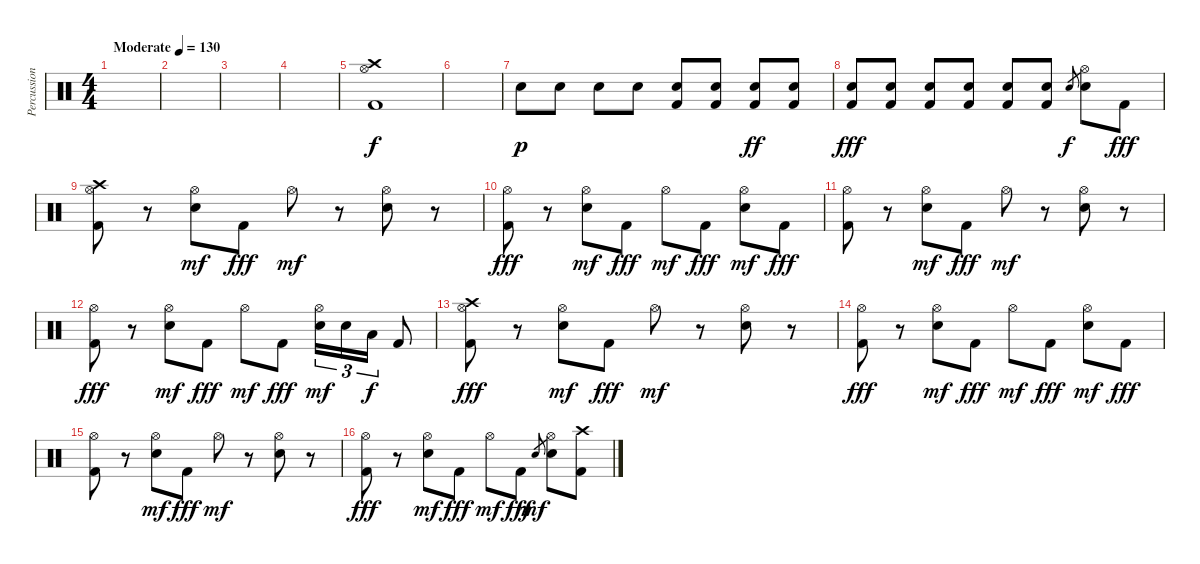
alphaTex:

\track ("Percussion" "Percussion") {instrument percussion}
\staff {score}
\articulation defaults
\ts (4 4)
\tempo (130 "Moderate")
\clef neutral
\ks c
|
|
|
|
("Kick (hit) 2" "Hi-Hat (open)" "Crash high (hit)").1 |
|
"Electric Snare (hit)".8{dy p} "Electric Snare (hit)".8 "Electric Snare (hit)".8 "Electric Snare (hit)".8 ("Electric Snare (hit)" "Kick (hit) 2").8 ("Electric Snare (hit)" "Kick (hit) 2").8 ("Electric Snare (hit)" "Kick (hit) 2").8{dy ff} ("Electric Snare (hit)" "Kick (hit) 2").8 |
("Electric Snare (hit)" "Kick (hit) 2").8{dy fff} ("Electric Snare (hit)" "Kick (hit) 2").8 ("Electric Snare (hit)" "Kick (hit) 2").8 ("Electric Snare (hit)" "Kick (hit) 2").8 ("Electric Snare (hit)" "Kick (hit) 2").8 ("Electric Snare (hit)" "Kick (hit) 2").8 "Electric Snare (hit)".8{gr dy f} ("Electric Snare (hit)" "Hi-Hat (open)").8 "Kick (hit) 2".8{dy fff} |
("Hi-Hat (open)" "Kick (hit) 2" "Crash high (hit)").8 r.8 ("Hi-Hat (open)" "Electric Snare (hit)").8{dy mf} "Kick (hit) 2".8{dy fff} "Hi-Hat (open)".8{dy mf} r.8 ("Hi-Hat (open)" "Electric Snare (hit)").8 r.8 |
("Hi-Hat (open)" "Kick (hit) 2").8{dy fff} r.8 ("Hi-Hat (open)" "Electric Snare (hit)").8{dy mf} "Kick (hit) 2".8{dy fff} "Hi-Hat (open)".8{dy mf} "Kick (hit) 2".8{dy fff} ("Hi-Hat (open)" "Electric Snare (hit)").8{dy mf} "Kick (hit) 2".8{dy fff} |
("Hi-Hat (open)" "Kick (hit) 2").8 r.8 ("Hi-Hat (open)" "Electric Snare (hit)").8{dy mf} "Kick (hit) 2".8{dy fff} "Hi-Hat (open)".8{dy mf} r.8 ("Hi-Hat (open)" "Electric Snare (hit)").8 r.8 |
("Hi-Hat (open)" "Kick (hit) 2").8{dy fff} r.8 ("Hi-Hat (open)" "Electric Snare (hit)").8{dy mf} "Kick (hit) 2".8{dy fff} "Hi-Hat (open)".8{dy mf} "Kick (hit) 2".8{dy fff} ("Hi-Hat (open)" "Electric Snare (hit)").16{tu (3 2) dy mf} "Electric Snare (hit)".16{tu (3 2)} "Low Tom (hit)".16{tu (3 2) dy f} "Kick (hit) 2".8 |
("Hi-Hat (open)" "Kick (hit) 2" "Crash high (hit)").8{dy fff} r.8 ("Hi-Hat (open)" "Electric Snare (hit)").8{dy mf} "Kick (hit) 2".8{dy fff} "Hi-Hat (open)".8{dy mf} r.8 ("Hi-Hat (open)" "Electric Snare (hit)").8 r.8 |
("Hi-Hat (open)" "Kick (hit) 2").8{dy fff} r.8 ("Hi-Hat (open)" "Electric Snare (hit)").8{dy mf} "Kick (hit) 2".8{dy fff} "Hi-Hat (open)".8{dy mf} "Kick (hit) 2".8{dy fff} ("Hi-Hat (open)" "Electric Snare (hit)").8{dy mf} "Kick (hit) 2".8{dy fff} |
("Hi-Hat (open)" "Kick (hit) 2").8 r.8 ("Hi-Hat (open)" "Electric Snare (hit)").8{dy mf} "Kick (hit) 2".8{dy fff} "Hi-Hat (open)".8{dy mf} r.8 ("Hi-Hat (open)" "Electric Snare (hit)").8 r.8 |
("Hi-Hat (open)" "Kick (hit) 2").8{dy fff} r.8 ("Hi-Hat (open)" "Electric Snare (hit)").8{dy mf} "Kick (hit) 2".8{dy fff} "Hi-Hat (open)".8{dy mf} "Kick (hit) 2".8{dy fff} "Electric Snare (hit)".8{gr dy mf} ("Hi-Hat (open)" "Electric Snare (hit)").8 ("Kick (hit) 2" "Crash high (hit)").8
